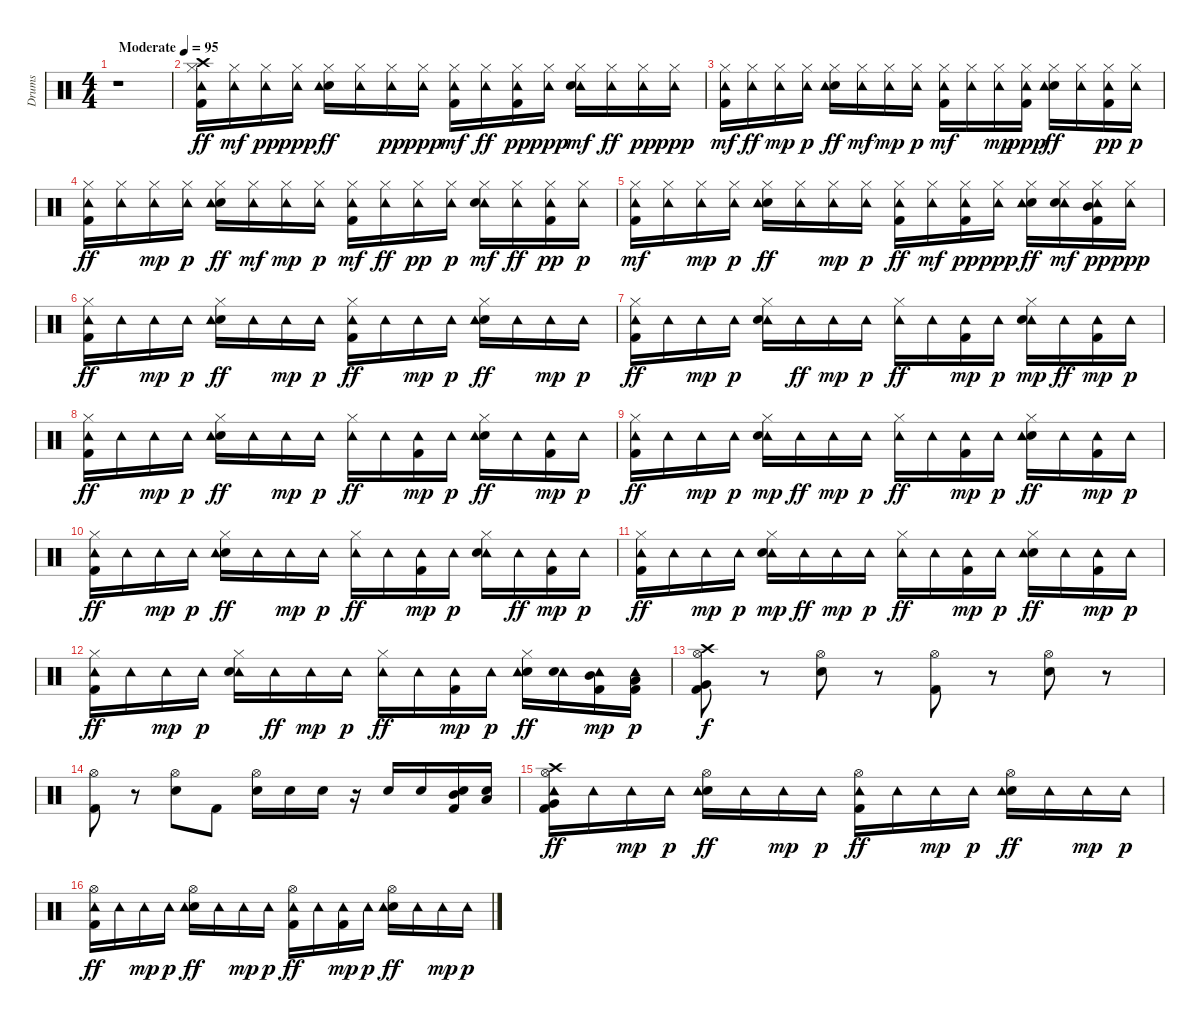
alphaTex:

\track ("Drums" "Drums") {instrument percussion}
\staff {score}
\articulation defaults
\ts (4 4)
\tempo (95 "Moderate")
\clef neutral
\ks c
r.1{dy ff} |
("Crash high (hit)" "Hi-Hat (closed)" "Tambourine (hit)" "Kick (hit) 2").16 ("Tambourine (hit)" "Hi-Hat (closed)").16{dy mf} ("Tambourine (hit)" "Hi-Hat (closed)").16{dy pp} ("Tambourine (hit)" "Hi-Hat (closed)").16{dy ppp} ("Hi-Hat (closed)" "Snare (hit) 2" "Tambourine (hit)").16{dy ff} ("Hi-Hat (closed)" "Tambourine (hit)").16 ("Tambourine (hit)" "Hi-Hat (closed)").16{dy pp} ("Tambourine (hit)" "Hi-Hat (closed)").16{dy ppp} ("Tambourine (hit)" "Hi-Hat (closed)" "Kick (hit) 2").16{dy mf} ("Hi-Hat (closed)" "Tambourine (hit)").16{dy ff} ("Tambourine (hit)" "Kick (hit) 2" "Hi-Hat (closed)").16{dy pp} ("Tambourine (hit)" "Hi-Hat (closed)").16{dy ppp} ("Tambourine (hit)" "Snare (hit) 2" "Hi-Hat (closed)").16{dy mf} ("Hi-Hat (closed)" "Tambourine (hit)").16{dy ff} ("Tambourine (hit)" "Hi-Hat (closed)").16{dy pp} ("Tambourine (hit)" "Hi-Hat (closed)").16{dy ppp} |
("Tambourine (hit)" "Hi-Hat (closed)" "Kick (hit) 2").16{dy mf} ("Hi-Hat (closed)" "Tambourine (hit)").16{dy ff} ("Hi-Hat (closed)" "Tambourine (hit)").16{dy mp} ("Hi-Hat (closed)" "Tambourine (hit)").16{dy p} ("Hi-Hat (closed)" "Snare (hit) 2" "Tambourine (hit)").16{dy ff} ("Tambourine (hit)" "Hi-Hat (closed)").16{dy mf} ("Hi-Hat (closed)" "Tambourine (hit)").16{dy mp} ("Hi-Hat (closed)" "Tambourine (hit)").16{dy p} ("Tambourine (hit)" "Hi-Hat (closed)" "Kick (hit) 2").16{dy mf} ("Tambourine (hit)" "Hi-Hat (closed)").16 ("Hi-Hat (closed)" "Tambourine (hit)").16{dy mp} ("Tambourine (hit)" "Hi-Hat (closed)" "Kick (hit) 2").16{dy ppp} ("Snare (hit) 2" "Hi-Hat (closed)" "Tambourine (hit)").16{dy ff} ("Hi-Hat (closed)" "Tambourine (hit)").16 ("Tambourine (hit)" "Kick (hit) 2" "Hi-Hat (closed)").16{dy pp} ("Hi-Hat (closed)" "Tambourine (hit)").16{dy p} |
("Hi-Hat (closed)" "Kick (hit) 2" "Tambourine (hit)").16{dy ff} ("Hi-Hat (closed)" "Tambourine (hit)").16 ("Hi-Hat (closed)" "Tambourine (hit)").16{dy mp} ("Hi-Hat (closed)" "Tambourine (hit)").16{dy p} ("Snare (hit) 2" "Hi-Hat (closed)" "Tambourine (hit)").16{dy ff} ("Tambourine (hit)" "Hi-Hat (closed)").16{dy mf} ("Hi-Hat (closed)" "Tambourine (hit)").16{dy mp} ("Hi-Hat (closed)" "Tambourine (hit)").16{dy p} ("Tambourine (hit)" "Hi-Hat (closed)" "Kick (hit) 2").16{dy mf} ("Hi-Hat (closed)" "Tambourine (hit)").16{dy ff} ("Tambourine (hit)" "Hi-Hat (closed)").16{dy pp} ("Hi-Hat (closed)" "Tambourine (hit)").16{dy p} ("Tambourine (hit)" "Snare (hit) 2" "Hi-Hat (closed)").16{dy mf} ("Hi-Hat (closed)" "Tambourine (hit)").16{dy ff} ("Tambourine (hit)" "Hi-Hat (closed)" "Kick (hit) 2").16{dy pp} ("Hi-Hat (closed)" "Tambourine (hit)").16{dy p} |
("Tambourine (hit)" "Hi-Hat (closed)" "Kick (hit) 2").16{dy mf} ("Tambourine (hit)" "Hi-Hat (closed)").16 ("Hi-Hat (closed)" "Tambourine (hit)").16{dy mp} ("Hi-Hat (closed)" "Tambourine (hit)").16{dy p} ("Hi-Hat (closed)" "Snare (hit) 2" "Tambourine (hit)").16{dy ff} ("Hi-Hat (closed)" "Tambourine (hit)").16 ("Hi-Hat (closed)" "Tambourine (hit)").16{dy mp} ("Hi-Hat (closed)" "Tambourine (hit)").16{dy p} ("Hi-Hat (closed)" "Kick (hit) 2" "Tambourine (hit)").16{dy ff} ("Tambourine (hit)" "Hi-Hat (closed)").16{dy mf} ("Tambourine (hit)" "Kick (hit) 2" "Hi-Hat (closed)").16{dy pp} ("Tambourine (hit)" "Hi-Hat (closed)").16{dy ppp} ("Snare (hit) 2" "Hi-Hat (closed)" "Tambourine (hit)").16{dy ff} ("Tambourine (hit)" "Snare (hit) 2" "Hi-Hat (closed)").16{dy mf} ("Tambourine (hit)" "Kick (hit) 2" "Mid Tom (hit)" "Hi-Hat (closed)").16{dy pp} ("Tambourine (hit)" "Hi-Hat (closed)").16{dy ppp} |
("Tambourine (hit)" "Kick (hit) 2" "Hi-Hat (closed)").16{dy ff} "Tambourine (hit)".16 "Tambourine (hit)".16{dy mp} "Tambourine (hit)".16{dy p} ("Snare (hit) 2" "Hi-Hat (closed)" "Tambourine (hit)").16{dy ff} "Tambourine (hit)".16 "Tambourine (hit)".16{dy mp} "Tambourine (hit)".16{dy p} ("Hi-Hat (closed)" "Kick (hit) 2" "Tambourine (hit)").16{dy ff} "Tambourine (hit)".16 "Tambourine (hit)".16{dy mp} "Tambourine (hit)".16{dy p} ("Snare (hit) 2" "Hi-Hat (closed)" "Tambourine (hit)").16{dy ff} "Tambourine (hit)".16 "Tambourine (hit)".16{dy mp} "Tambourine (hit)".16{dy p} |
("Hi-Hat (closed)" "Kick (hit) 2" "Tambourine (hit)").16{dy ff} "Tambourine (hit)".16 "Tambourine (hit)".16{dy mp} "Tambourine (hit)".16{dy p} ("Tambourine (hit)" "Hi-Hat (closed)" "Snare (hit) 2").16 "Tambourine (hit)".16{dy ff} "Tambourine (hit)".16{dy mp} "Tambourine (hit)".16{dy p} ("Hi-Hat (closed)" "Tambourine (hit)").16{dy ff} "Tambourine (hit)".16 ("Tambourine (hit)" "Kick (hit) 2").16{dy mp} "Tambourine (hit)".16{dy p} ("Tambourine (hit)" "Snare (hit) 2" "Hi-Hat (closed)").16{dy mp} "Tambourine (hit)".16{dy ff} ("Kick (hit) 2" "Tambourine (hit)").16{dy mp} "Tambourine (hit)".16{dy p} |
("Tambourine (hit)" "Hi-Hat (closed)" "Kick (hit) 2").16{dy ff} "Tambourine (hit)".16 "Tambourine (hit)".16{dy mp} "Tambourine (hit)".16{dy p} ("Hi-Hat (closed)" "Snare (hit) 2" "Tambourine (hit)").16{dy ff} "Tambourine (hit)".16 "Tambourine (hit)".16{dy mp} "Tambourine (hit)".16{dy p} ("Hi-Hat (closed)" "Tambourine (hit)").16{dy ff} "Tambourine (hit)".16 ("Kick (hit) 2" "Tambourine (hit)").16{dy mp} "Tambourine (hit)".16{dy p} ("Hi-Hat (closed)" "Snare (hit) 2" "Tambourine (hit)").16{dy ff} "Tambourine (hit)".16 ("Kick (hit) 2" "Tambourine (hit)").16{dy mp} "Tambourine (hit)".16{dy p} |
("Kick (hit) 2" "Hi-Hat (closed)" "Tambourine (hit)").16{dy ff} "Tambourine (hit)".16 "Tambourine (hit)".16{dy mp} "Tambourine (hit)".16{dy p} ("Tambourine (hit)" "Snare (hit) 2" "Hi-Hat (closed)").16{dy mp} "Tambourine (hit)".16{dy ff} "Tambourine (hit)".16{dy mp} "Tambourine (hit)".16{dy p} ("Tambourine (hit)" "Hi-Hat (closed)").16{dy ff} "Tambourine (hit)".16 ("Kick (hit) 2" "Tambourine (hit)").16{dy mp} "Tambourine (hit)".16{dy p} ("Snare (hit) 2" "Hi-Hat (closed)" "Tambourine (hit)").16{dy ff} "Tambourine (hit)".16 ("Kick (hit) 2" "Tambourine (hit)").16{dy mp} "Tambourine (hit)".16{dy p} |
("Hi-Hat (closed)" "Kick (hit) 2" "Tambourine (hit)").16{dy ff} "Tambourine (hit)".16 "Tambourine (hit)".16{dy mp} "Tambourine (hit)".16{dy p} ("Hi-Hat (closed)" "Snare (hit) 2" "Tambourine (hit)").16{dy ff} "Tambourine (hit)".16 "Tambourine (hit)".16{dy mp} "Tambourine (hit)".16{dy p} ("Hi-Hat (closed)" "Tambourine (hit)").16{dy ff} "Tambourine (hit)".16 ("Tambourine (hit)" "Kick (hit) 2").16{dy mp} "Tambourine (hit)".16{dy p} ("Tambourine (hit)" "Hi-Hat (closed)" "Snare (hit) 2").16 "Tambourine (hit)".16{dy ff} ("Kick (hit) 2" "Tambourine (hit)").16{dy mp} "Tambourine (hit)".16{dy p} |
("Hi-Hat (closed)" "Kick (hit) 2" "Tambourine (hit)").16{dy ff} "Tambourine (hit)".16 "Tambourine (hit)".16{dy mp} "Tambourine (hit)".16{dy p} ("Tambourine (hit)" "Snare (hit) 2" "Hi-Hat (closed)").16{dy mp} "Tambourine (hit)".16{dy ff} "Tambourine (hit)".16{dy mp} "Tambourine (hit)".16{dy p} ("Tambourine (hit)" "Hi-Hat (closed)").16{dy ff} "Tambourine (hit)".16 ("Tambourine (hit)" "Kick (hit) 2").16{dy mp} "Tambourine (hit)".16{dy p} ("Hi-Hat (closed)" "Snare (hit) 2" "Tambourine (hit)").16{dy ff} "Tambourine (hit)".16 ("Kick (hit) 2" "Tambourine (hit)").16{dy mp} "Tambourine (hit)".16{dy p} |
("Tambourine (hit)" "Hi-Hat (closed)" "Kick (hit) 2").16{dy ff} "Tambourine (hit)".16 "Tambourine (hit)".16{dy mp} "Tambourine (hit)".16{dy p} ("Tambourine (hit)" "Snare (hit) 2" "Hi-Hat (closed)").16 "Tambourine (hit)".16{dy ff} "Tambourine (hit)".16{dy mp} "Tambourine (hit)".16{dy p} ("Hi-Hat (closed)" "Tambourine (hit)").16{dy ff} "Tambourine (hit)".16 ("Kick (hit) 2" "Tambourine (hit)").16{dy mp} "Tambourine (hit)".16{dy p} ("Hi-Hat (closed)" "Snare (hit) 2" "Tambourine (hit)").16{dy ff} ("Tambourine (hit)" "Snare (hit) 2").16 ("Tambourine (hit)" "Kick (hit) 2" "Mid Tom (hit)").16{dy mp} ("Tambourine (hit)" "Low Tom (hit)" "Kick (hit) 2").16{dy p} |
("Very Low Tom (hit)" "Kick (hit) 2" "Crash high (hit)" "Hi-Hat (open)").8{dy f} r.8 ("Snare (hit) 2" "Hi-Hat (open)").8 r.8 ("Kick (hit) 2" "Hi-Hat (open)").8 r.8 ("Hi-Hat (open)" "Snare (hit) 2").8 r.8 |
("Hi-Hat (open)" "Kick (hit) 2").8 r.8 ("Snare (hit) 2" "Hi-Hat (open)").8 "Kick (hit) 2".8 ("Hi-Hat (open)" "Snare (hit) 2").16 "Snare (hit) 2".16 "Snare (hit) 2".16 r.16 "Snare (hit) 2".16 "Snare (hit) 2".16 ("Mid Tom (hit)" "Snare (hit) 2" "Kick (hit) 2").16 ("Low Tom (hit)" "Snare (hit) 2").16 |
("Very Low Tom (hit)" "Kick (hit) 2" "Tambourine (hit)" "Crash high (hit)" "Hi-Hat (open)").16{dy ff} "Tambourine (hit)".16 "Tambourine (hit)".16{dy mp} "Tambourine (hit)".16{dy p} ("Hi-Hat (open)" "Snare (hit) 2" "Tambourine (hit)").16{dy ff} "Tambourine (hit)".16 "Tambourine (hit)".16{dy mp} "Tambourine (hit)".16{dy p} ("Kick (hit) 2" "Hi-Hat (open)" "Tambourine (hit)").16{dy ff} "Tambourine (hit)".16 "Tambourine (hit)".16{dy mp} "Tambourine (hit)".16{dy p} ("Hi-Hat (open)" "Snare (hit) 2" "Tambourine (hit)").16{dy ff} "Tambourine (hit)".16 "Tambourine (hit)".16{dy mp} "Tambourine (hit)".16{dy p} |
("Kick (hit) 2" "Hi-Hat (open)" "Tambourine (hit)").16{dy ff} "Tambourine (hit)".16 "Tambourine (hit)".16{dy mp} "Tambourine (hit)".16{dy p} ("Hi-Hat (open)" "Snare (hit) 2" "Tambourine (hit)").16{dy ff} "Tambourine (hit)".16 "Tambourine (hit)".16{dy mp} "Tambourine (hit)".16{dy p} ("Tambourine (hit)" "Hi-Hat (open)" "Kick (hit) 2").16{dy ff} "Tambourine (hit)".16 ("Kick (hit) 2" "Tambourine (hit)").16{dy mp} "Tambourine (hit)".16{dy p} ("Hi-Hat (open)" "Snare (hit) 2" "Tambourine (hit)").16{dy ff} "Tambourine (hit)".16 "Tambourine (hit)".16{dy mp} "Tambourine (hit)".16{dy p}
